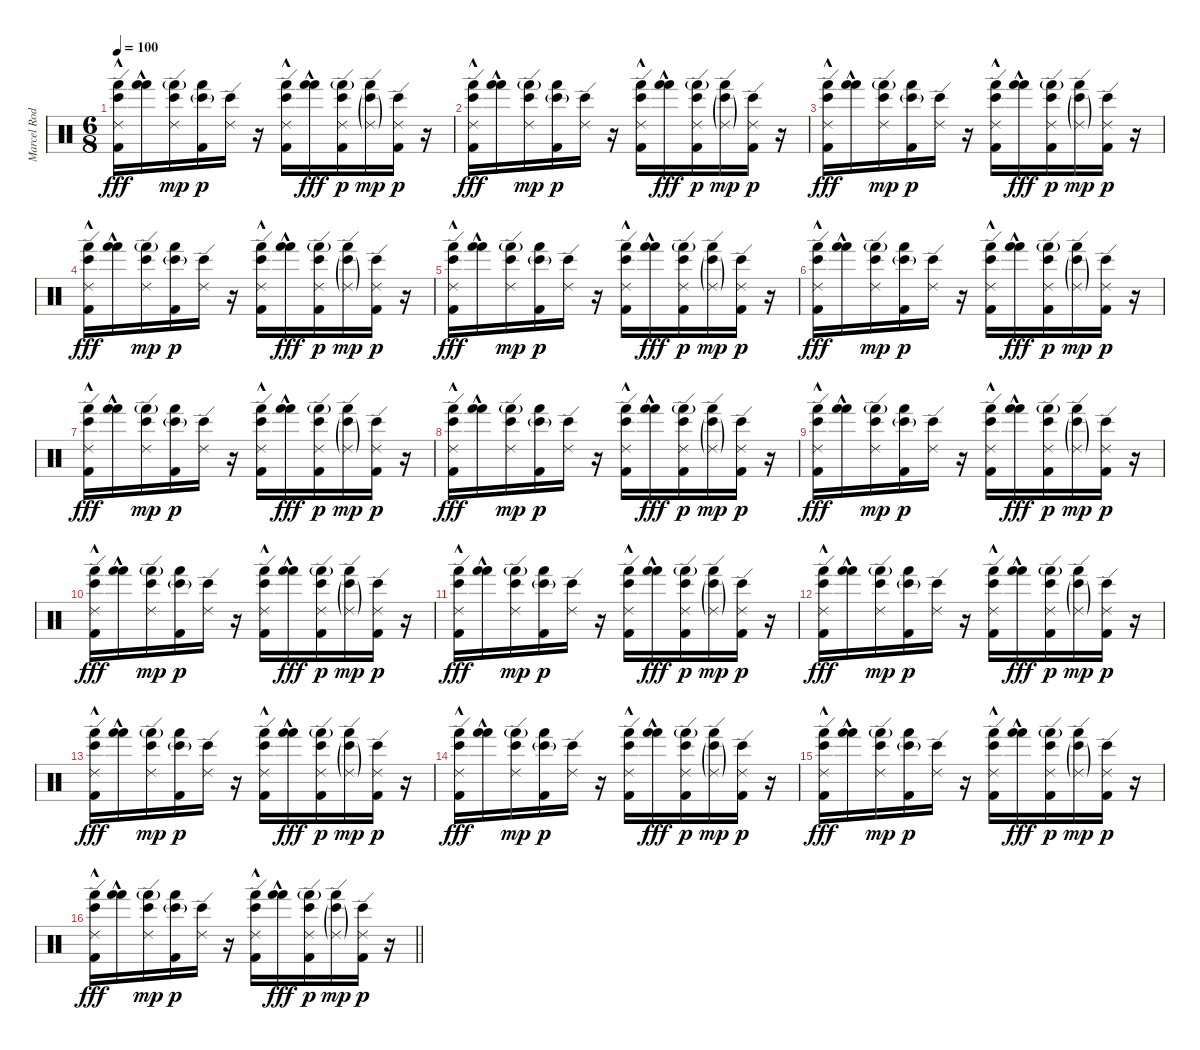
\track ("Marcel Rodriguez & Thomas Pridgen" "Marcel Rod") {instrument percussion}
\staff {score}
\articulation defaults
\ts (6 8)
\tempo 100
\clef neutral
\ks c
("Ride (edge) 2" "Bongo High (hit)" "Hand (hit)"{hac} "Kick (hit) 2").16{dy fff} ("Hand (hit)" "Hand (hit)"{hac}).16 ("Ride (edge) 2" "Bongo High (hit)" "Hand (hit)"{g}).16{dy mp} ("Hand (hit)" "Bongo High (hit)"{g} "Kick (hit) 2").16{dy p} ("Ride (edge) 2" "Bongo High (hit)").16 r.16 ("Ride (edge) 2" "Bongo High (hit)" "Hand (hit)"{hac} "Kick (hit) 2").16 ("Hand (hit)" "Hand (hit)"{hac}).16{dy fff} ("Ride (edge) 2" "Bongo High (hit)" "Hand (hit)"{g} "Kick (hit) 2").16{dy p} ("Ride (edge) 2"{g} "Hand (hit)" "Bongo High (hit)"{g}).16{dy mp} ("Ride (edge) 2" "Bongo High (hit)" "Kick (hit) 2").16{dy p} r.16 |
("Ride (edge) 2" "Bongo High (hit)" "Hand (hit)"{hac} "Kick (hit) 2").16{dy fff} ("Hand (hit)" "Hand (hit)"{hac}).16 ("Ride (edge) 2" "Bongo High (hit)" "Hand (hit)"{g}).16{dy mp} ("Hand (hit)" "Bongo High (hit)"{g} "Kick (hit) 2").16{dy p} ("Ride (edge) 2" "Bongo High (hit)").16 r.16 ("Ride (edge) 2" "Bongo High (hit)" "Hand (hit)"{hac} "Kick (hit) 2").16 ("Hand (hit)" "Hand (hit)"{hac}).16{dy fff} ("Ride (edge) 2" "Bongo High (hit)" "Hand (hit)"{g} "Kick (hit) 2").16{dy p} ("Ride (edge) 2"{g} "Hand (hit)" "Bongo High (hit)"{g}).16{dy mp} ("Ride (edge) 2" "Bongo High (hit)" "Kick (hit) 2").16{dy p} r.16 |
("Ride (edge) 2" "Bongo High (hit)" "Hand (hit)"{hac} "Kick (hit) 2").16{dy fff} ("Hand (hit)" "Hand (hit)"{hac}).16 ("Ride (edge) 2" "Bongo High (hit)" "Hand (hit)"{g}).16{dy mp} ("Hand (hit)" "Bongo High (hit)"{g} "Kick (hit) 2").16{dy p} ("Ride (edge) 2" "Bongo High (hit)").16 r.16 ("Ride (edge) 2" "Bongo High (hit)" "Hand (hit)"{hac} "Kick (hit) 2").16 ("Hand (hit)" "Hand (hit)"{hac}).16{dy fff} ("Ride (edge) 2" "Bongo High (hit)" "Hand (hit)"{g} "Kick (hit) 2").16{dy p} ("Ride (edge) 2"{g} "Hand (hit)" "Bongo High (hit)"{g}).16{dy mp} ("Ride (edge) 2" "Bongo High (hit)" "Kick (hit) 2").16{dy p} r.16 |
("Ride (edge) 2" "Bongo High (hit)" "Hand (hit)"{hac} "Kick (hit) 2").16{dy fff} ("Hand (hit)" "Hand (hit)"{hac}).16 ("Ride (edge) 2" "Bongo High (hit)" "Hand (hit)"{g}).16{dy mp} ("Hand (hit)" "Bongo High (hit)"{g} "Kick (hit) 2").16{dy p} ("Ride (edge) 2" "Bongo High (hit)").16 r.16 ("Ride (edge) 2" "Bongo High (hit)" "Hand (hit)"{hac} "Kick (hit) 2").16 ("Hand (hit)" "Hand (hit)"{hac}).16{dy fff} ("Ride (edge) 2" "Bongo High (hit)" "Hand (hit)"{g} "Kick (hit) 2").16{dy p} ("Ride (edge) 2"{g} "Hand (hit)" "Bongo High (hit)"{g}).16{dy mp} ("Ride (edge) 2" "Bongo High (hit)" "Kick (hit) 2").16{dy p} r.16 |
("Ride (edge) 2" "Bongo High (hit)" "Hand (hit)"{hac} "Kick (hit) 2").16{dy fff} ("Hand (hit)" "Hand (hit)"{hac}).16 ("Ride (edge) 2" "Bongo High (hit)" "Hand (hit)"{g}).16{dy mp} ("Hand (hit)" "Bongo High (hit)"{g} "Kick (hit) 2").16{dy p} ("Ride (edge) 2" "Bongo High (hit)").16 r.16 ("Ride (edge) 2" "Bongo High (hit)" "Hand (hit)"{hac} "Kick (hit) 2").16 ("Hand (hit)" "Hand (hit)"{hac}).16{dy fff} ("Ride (edge) 2" "Bongo High (hit)" "Hand (hit)"{g} "Kick (hit) 2").16{dy p} ("Ride (edge) 2"{g} "Hand (hit)" "Bongo High (hit)"{g}).16{dy mp} ("Ride (edge) 2" "Bongo High (hit)" "Kick (hit) 2").16{dy p} r.16 |
("Ride (edge) 2" "Bongo High (hit)" "Hand (hit)"{hac} "Kick (hit) 2").16{dy fff} ("Hand (hit)" "Hand (hit)"{hac}).16 ("Ride (edge) 2" "Bongo High (hit)" "Hand (hit)"{g}).16{dy mp} ("Hand (hit)" "Bongo High (hit)"{g} "Kick (hit) 2").16{dy p} ("Ride (edge) 2" "Bongo High (hit)").16 r.16 ("Ride (edge) 2" "Bongo High (hit)" "Hand (hit)"{hac} "Kick (hit) 2").16 ("Hand (hit)" "Hand (hit)"{hac}).16{dy fff} ("Ride (edge) 2" "Bongo High (hit)" "Hand (hit)"{g} "Kick (hit) 2").16{dy p} ("Ride (edge) 2"{g} "Hand (hit)" "Bongo High (hit)"{g}).16{dy mp} ("Ride (edge) 2" "Bongo High (hit)" "Kick (hit) 2").16{dy p} r.16 |
("Ride (edge) 2" "Bongo High (hit)" "Hand (hit)"{hac} "Kick (hit) 2").16{dy fff} ("Hand (hit)" "Hand (hit)"{hac}).16 ("Ride (edge) 2" "Bongo High (hit)" "Hand (hit)"{g}).16{dy mp} ("Hand (hit)" "Bongo High (hit)"{g} "Kick (hit) 2").16{dy p} ("Ride (edge) 2" "Bongo High (hit)").16 r.16 ("Ride (edge) 2" "Bongo High (hit)" "Hand (hit)"{hac} "Kick (hit) 2").16 ("Hand (hit)" "Hand (hit)"{hac}).16{dy fff} ("Ride (edge) 2" "Bongo High (hit)" "Hand (hit)"{g} "Kick (hit) 2").16{dy p} ("Ride (edge) 2"{g} "Hand (hit)" "Bongo High (hit)"{g}).16{dy mp} ("Ride (edge) 2" "Bongo High (hit)" "Kick (hit) 2").16{dy p} r.16 |
("Ride (edge) 2" "Bongo High (hit)" "Hand (hit)"{hac} "Kick (hit) 2").16{dy fff} ("Hand (hit)" "Hand (hit)"{hac}).16 ("Ride (edge) 2" "Bongo High (hit)" "Hand (hit)"{g}).16{dy mp} ("Hand (hit)" "Bongo High (hit)"{g} "Kick (hit) 2").16{dy p} ("Ride (edge) 2" "Bongo High (hit)").16 r.16 ("Ride (edge) 2" "Bongo High (hit)" "Hand (hit)"{hac} "Kick (hit) 2").16 ("Hand (hit)" "Hand (hit)"{hac}).16{dy fff} ("Ride (edge) 2" "Bongo High (hit)" "Hand (hit)"{g} "Kick (hit) 2").16{dy p} ("Ride (edge) 2"{g} "Hand (hit)" "Bongo High (hit)"{g}).16{dy mp} ("Ride (edge) 2" "Bongo High (hit)" "Kick (hit) 2").16{dy p} r.16 |
("Ride (edge) 2" "Bongo High (hit)" "Hand (hit)"{hac} "Kick (hit) 2").16{dy fff} ("Hand (hit)" "Hand (hit)"{hac}).16 ("Ride (edge) 2" "Bongo High (hit)" "Hand (hit)"{g}).16{dy mp} ("Hand (hit)" "Bongo High (hit)"{g} "Kick (hit) 2").16{dy p} ("Ride (edge) 2" "Bongo High (hit)").16 r.16 ("Ride (edge) 2" "Bongo High (hit)" "Hand (hit)"{hac} "Kick (hit) 2").16 ("Hand (hit)" "Hand (hit)"{hac}).16{dy fff} ("Ride (edge) 2" "Bongo High (hit)" "Hand (hit)"{g} "Kick (hit) 2").16{dy p} ("Ride (edge) 2"{g} "Hand (hit)" "Bongo High (hit)"{g}).16{dy mp} ("Ride (edge) 2" "Bongo High (hit)" "Kick (hit) 2").16{dy p} r.16 |
("Ride (edge) 2" "Bongo High (hit)" "Hand (hit)"{hac} "Kick (hit) 2").16{dy fff} ("Hand (hit)" "Hand (hit)"{hac}).16 ("Ride (edge) 2" "Bongo High (hit)" "Hand (hit)"{g}).16{dy mp} ("Hand (hit)" "Bongo High (hit)"{g} "Kick (hit) 2").16{dy p} ("Ride (edge) 2" "Bongo High (hit)").16 r.16 ("Ride (edge) 2" "Bongo High (hit)" "Hand (hit)"{hac} "Kick (hit) 2").16 ("Hand (hit)" "Hand (hit)"{hac}).16{dy fff} ("Ride (edge) 2" "Bongo High (hit)" "Hand (hit)"{g} "Kick (hit) 2").16{dy p} ("Ride (edge) 2"{g} "Hand (hit)" "Bongo High (hit)"{g}).16{dy mp} ("Ride (edge) 2" "Bongo High (hit)" "Kick (hit) 2").16{dy p} r.16 |
("Ride (edge) 2" "Bongo High (hit)" "Hand (hit)"{hac} "Kick (hit) 2").16{dy fff} ("Hand (hit)" "Hand (hit)"{hac}).16 ("Ride (edge) 2" "Bongo High (hit)" "Hand (hit)"{g}).16{dy mp} ("Hand (hit)" "Bongo High (hit)"{g} "Kick (hit) 2").16{dy p} ("Ride (edge) 2" "Bongo High (hit)").16 r.16 ("Ride (edge) 2" "Bongo High (hit)" "Hand (hit)"{hac} "Kick (hit) 2").16 ("Hand (hit)" "Hand (hit)"{hac}).16{dy fff} ("Ride (edge) 2" "Bongo High (hit)" "Hand (hit)"{g} "Kick (hit) 2").16{dy p} ("Ride (edge) 2"{g} "Hand (hit)" "Bongo High (hit)"{g}).16{dy mp} ("Ride (edge) 2" "Bongo High (hit)" "Kick (hit) 2").16{dy p} r.16 |
("Ride (edge) 2" "Bongo High (hit)" "Hand (hit)"{hac} "Kick (hit) 2").16{dy fff} ("Hand (hit)" "Hand (hit)"{hac}).16 ("Ride (edge) 2" "Bongo High (hit)" "Hand (hit)"{g}).16{dy mp} ("Hand (hit)" "Bongo High (hit)"{g} "Kick (hit) 2").16{dy p} ("Ride (edge) 2" "Bongo High (hit)").16 r.16 ("Ride (edge) 2" "Bongo High (hit)" "Hand (hit)"{hac} "Kick (hit) 2").16 ("Hand (hit)" "Hand (hit)"{hac}).16{dy fff} ("Ride (edge) 2" "Bongo High (hit)" "Hand (hit)"{g} "Kick (hit) 2").16{dy p} ("Ride (edge) 2"{g} "Hand (hit)" "Bongo High (hit)"{g}).16{dy mp} ("Ride (edge) 2" "Bongo High (hit)" "Kick (hit) 2").16{dy p} r.16 |
("Ride (edge) 2" "Bongo High (hit)" "Hand (hit)"{hac} "Kick (hit) 2").16{dy fff} ("Hand (hit)" "Hand (hit)"{hac}).16 ("Ride (edge) 2" "Bongo High (hit)" "Hand (hit)"{g}).16{dy mp} ("Hand (hit)" "Bongo High (hit)"{g} "Kick (hit) 2").16{dy p} ("Ride (edge) 2" "Bongo High (hit)").16 r.16 ("Ride (edge) 2" "Bongo High (hit)" "Hand (hit)"{hac} "Kick (hit) 2").16 ("Hand (hit)" "Hand (hit)"{hac}).16{dy fff} ("Ride (edge) 2" "Bongo High (hit)" "Hand (hit)"{g} "Kick (hit) 2").16{dy p} ("Ride (edge) 2"{g} "Hand (hit)" "Bongo High (hit)"{g}).16{dy mp} ("Ride (edge) 2" "Bongo High (hit)" "Kick (hit) 2").16{dy p} r.16 |
("Ride (edge) 2" "Bongo High (hit)" "Hand (hit)"{hac} "Kick (hit) 2").16{dy fff} ("Hand (hit)" "Hand (hit)"{hac}).16 ("Ride (edge) 2" "Bongo High (hit)" "Hand (hit)"{g}).16{dy mp} ("Hand (hit)" "Bongo High (hit)"{g} "Kick (hit) 2").16{dy p} ("Ride (edge) 2" "Bongo High (hit)").16 r.16 ("Ride (edge) 2" "Bongo High (hit)" "Hand (hit)"{hac} "Kick (hit) 2").16 ("Hand (hit)" "Hand (hit)"{hac}).16{dy fff} ("Ride (edge) 2" "Bongo High (hit)" "Hand (hit)"{g} "Kick (hit) 2").16{dy p} ("Ride (edge) 2"{g} "Hand (hit)" "Bongo High (hit)"{g}).16{dy mp} ("Ride (edge) 2" "Bongo High (hit)" "Kick (hit) 2").16{dy p} r.16 |
("Ride (edge) 2" "Bongo High (hit)" "Hand (hit)"{hac} "Kick (hit) 2").16{dy fff} ("Hand (hit)" "Hand (hit)"{hac}).16 ("Ride (edge) 2" "Bongo High (hit)" "Hand (hit)"{g}).16{dy mp} ("Hand (hit)" "Bongo High (hit)"{g} "Kick (hit) 2").16{dy p} ("Ride (edge) 2" "Bongo High (hit)").16 r.16 ("Ride (edge) 2" "Bongo High (hit)" "Hand (hit)"{hac} "Kick (hit) 2").16 ("Hand (hit)" "Hand (hit)"{hac}).16{dy fff} ("Ride (edge) 2" "Bongo High (hit)" "Hand (hit)"{g} "Kick (hit) 2").16{dy p} ("Ride (edge) 2"{g} "Hand (hit)" "Bongo High (hit)"{g}).16{dy mp} ("Ride (edge) 2" "Bongo High (hit)" "Kick (hit) 2").16{dy p} r.16 |
\barLineRight lightlight
("Ride (edge) 2" "Bongo High (hit)" "Hand (hit)"{hac} "Kick (hit) 2").16{dy fff} ("Hand (hit)" "Hand (hit)"{hac}).16 ("Ride (edge) 2" "Bongo High (hit)" "Hand (hit)"{g}).16{dy mp} ("Hand (hit)" "Bongo High (hit)"{g} "Kick (hit) 2").16{dy p} ("Ride (edge) 2" "Bongo High (hit)").16 r.16 ("Ride (edge) 2" "Bongo High (hit)" "Hand (hit)"{hac} "Kick (hit) 2").16 ("Hand (hit)" "Hand (hit)"{hac}).16{dy fff} ("Ride (edge) 2" "Bongo High (hit)" "Hand (hit)"{g} "Kick (hit) 2").16{dy p} ("Ride (edge) 2"{g} "Hand (hit)" "Bongo High (hit)"{g}).16{dy mp} ("Ride (edge) 2" "Bongo High (hit)" "Kick (hit) 2").16{dy p} r.16
